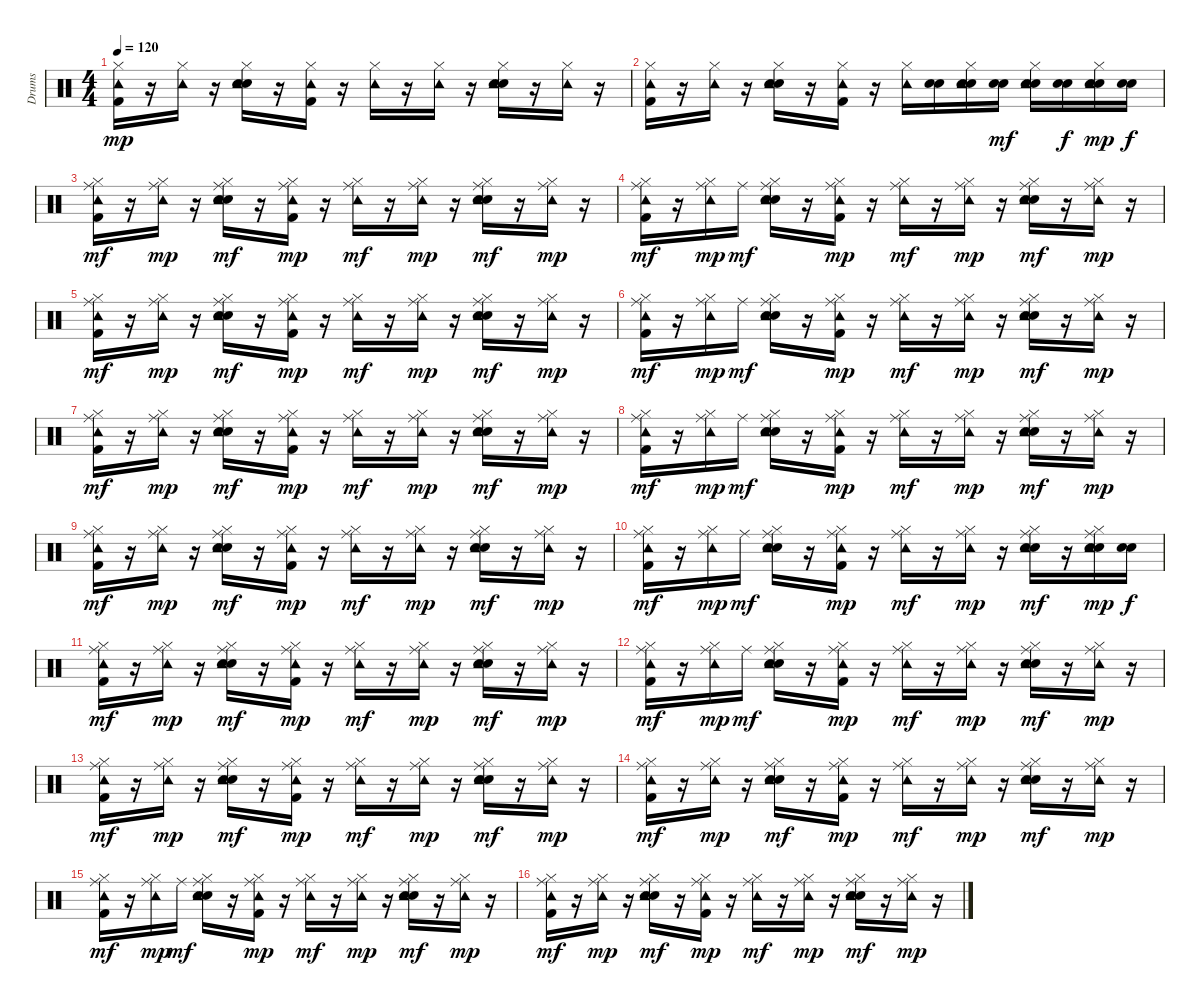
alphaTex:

\track ("Drums" "Drums") {instrument percussion}
\staff {score}
\articulation defaults
\ts (4 4)
\tempo 120
\clef neutral
\ks c
("Hi-Hat (closed)" "Tambourine (hit)" "Kick (hit) 2").16{dy mp} r.16 ("Hi-Hat (closed)" "Tambourine (hit)").16 r.16 ("Hi-Hat (closed)" "Snare (hit) 2" "Electric Snare (hit)" "Tambourine (hit)").16 r.16 ("Hi-Hat (closed)" "Tambourine (hit)" "Kick (hit) 2").16 r.16 ("Hi-Hat (closed)" "Tambourine (hit)").16 r.16 ("Hi-Hat (closed)" "Tambourine (hit)").16 r.16 ("Hi-Hat (closed)" "Snare (hit) 2" "Electric Snare (hit)" "Tambourine (hit)").16 r.16 ("Hi-Hat (closed)" "Tambourine (hit)").16 r.16 |
("Hi-Hat (closed)" "Tambourine (hit)" "Kick (hit) 2").16 r.16 ("Hi-Hat (closed)" "Tambourine (hit)").16 r.16 ("Hi-Hat (closed)" "Snare (hit) 2" "Electric Snare (hit)" "Tambourine (hit)").16 r.16 ("Hi-Hat (closed)" "Tambourine (hit)" "Kick (hit) 2").16 r.16 ("Hi-Hat (closed)" "Tambourine (hit)").16 ("Snare (hit) 2" "Electric Snare (hit)").16 ("Hi-Hat (closed)" "Snare (hit) 2" "Electric Snare (hit)" "Tambourine (hit)").16 ("Snare (hit) 2" "Electric Snare (hit)").16{dy mf} ("Hi-Hat (closed)" "Snare (hit) 2" "Electric Snare (hit)" "Tambourine (hit)").16 ("Snare (hit) 2" "Electric Snare (hit)").16{dy f} ("Hi-Hat (closed)" "Snare (hit) 2" "Electric Snare (hit)" "Tambourine (hit)").16{dy mp} ("Snare (hit) 2" "Electric Snare (hit)").16{dy f} |
("Hi-Hat (closed)" "Ride (middle)" "Tambourine (hit)" "Kick (hit) 2").16{dy mf} r.16 ("Hi-Hat (closed)" "Ride (middle)" "Tambourine (hit)").16{dy mp} r.16 ("Hi-Hat (closed)" "Ride (middle)" "Snare (hit) 2" "Electric Snare (hit)" "Tambourine (hit)").16{dy mf} r.16 ("Hi-Hat (closed)" "Ride (middle)" "Tambourine (hit)" "Kick (hit) 2").16{dy mp} r.16 ("Hi-Hat (closed)" "Ride (middle)" "Tambourine (hit)").16{dy mf} r.16 ("Hi-Hat (closed)" "Ride (middle)" "Tambourine (hit)").16{dy mp} r.16 ("Hi-Hat (closed)" "Ride (middle)" "Snare (hit) 2" "Electric Snare (hit)" "Tambourine (hit)").16{dy mf} r.16 ("Hi-Hat (closed)" "Ride (middle)" "Tambourine (hit)").16{dy mp} r.16 |
("Hi-Hat (closed)" "Ride (middle)" "Tambourine (hit)" "Kick (hit) 2").16{dy mf} r.16 ("Hi-Hat (closed)" "Ride (middle)" "Tambourine (hit)").16{dy mp} "Ride (middle)".16{dy mf} ("Hi-Hat (closed)" "Ride (middle)" "Snare (hit) 2" "Electric Snare (hit)" "Tambourine (hit)").16 r.16 ("Hi-Hat (closed)" "Ride (middle)" "Tambourine (hit)" "Kick (hit) 2").16{dy mp} r.16 ("Hi-Hat (closed)" "Ride (middle)" "Tambourine (hit)").16{dy mf} r.16 ("Hi-Hat (closed)" "Ride (middle)" "Tambourine (hit)").16{dy mp} r.16 ("Hi-Hat (closed)" "Ride (middle)" "Snare (hit) 2" "Electric Snare (hit)" "Tambourine (hit)").16{dy mf} r.16 ("Hi-Hat (closed)" "Ride (middle)" "Tambourine (hit)").16{dy mp} r.16 |
("Hi-Hat (closed)" "Ride (middle)" "Tambourine (hit)" "Kick (hit) 2").16{dy mf} r.16 ("Hi-Hat (closed)" "Ride (middle)" "Tambourine (hit)").16{dy mp} r.16 ("Hi-Hat (closed)" "Ride (middle)" "Snare (hit) 2" "Electric Snare (hit)" "Tambourine (hit)").16{dy mf} r.16 ("Hi-Hat (closed)" "Ride (middle)" "Tambourine (hit)" "Kick (hit) 2").16{dy mp} r.16 ("Hi-Hat (closed)" "Ride (middle)" "Tambourine (hit)").16{dy mf} r.16 ("Hi-Hat (closed)" "Ride (middle)" "Tambourine (hit)").16{dy mp} r.16 ("Hi-Hat (closed)" "Ride (middle)" "Snare (hit) 2" "Electric Snare (hit)" "Tambourine (hit)").16{dy mf} r.16 ("Hi-Hat (closed)" "Ride (middle)" "Tambourine (hit)").16{dy mp} r.16 |
("Hi-Hat (closed)" "Ride (middle)" "Tambourine (hit)" "Kick (hit) 2").16{dy mf} r.16 ("Hi-Hat (closed)" "Ride (middle)" "Tambourine (hit)").16{dy mp} "Ride (middle)".16{dy mf} ("Hi-Hat (closed)" "Ride (middle)" "Snare (hit) 2" "Electric Snare (hit)" "Tambourine (hit)").16 r.16 ("Hi-Hat (closed)" "Ride (middle)" "Tambourine (hit)" "Kick (hit) 2").16{dy mp} r.16 ("Hi-Hat (closed)" "Ride (middle)" "Tambourine (hit)").16{dy mf} r.16 ("Hi-Hat (closed)" "Ride (middle)" "Tambourine (hit)").16{dy mp} r.16 ("Hi-Hat (closed)" "Ride (middle)" "Snare (hit) 2" "Electric Snare (hit)" "Tambourine (hit)").16{dy mf} r.16 ("Hi-Hat (closed)" "Ride (middle)" "Tambourine (hit)").16{dy mp} r.16 |
("Hi-Hat (closed)" "Ride (middle)" "Tambourine (hit)" "Kick (hit) 2").16{dy mf} r.16 ("Hi-Hat (closed)" "Ride (middle)" "Tambourine (hit)").16{dy mp} r.16 ("Hi-Hat (closed)" "Ride (middle)" "Snare (hit) 2" "Electric Snare (hit)" "Tambourine (hit)").16{dy mf} r.16 ("Hi-Hat (closed)" "Ride (middle)" "Tambourine (hit)" "Kick (hit) 2").16{dy mp} r.16 ("Hi-Hat (closed)" "Ride (middle)" "Tambourine (hit)").16{dy mf} r.16 ("Hi-Hat (closed)" "Ride (middle)" "Tambourine (hit)").16{dy mp} r.16 ("Hi-Hat (closed)" "Ride (middle)" "Snare (hit) 2" "Electric Snare (hit)" "Tambourine (hit)").16{dy mf} r.16 ("Hi-Hat (closed)" "Ride (middle)" "Tambourine (hit)").16{dy mp} r.16 |
("Hi-Hat (closed)" "Ride (middle)" "Tambourine (hit)" "Kick (hit) 2").16{dy mf} r.16 ("Hi-Hat (closed)" "Ride (middle)" "Tambourine (hit)").16{dy mp} "Ride (middle)".16{dy mf} ("Hi-Hat (closed)" "Ride (middle)" "Snare (hit) 2" "Electric Snare (hit)" "Tambourine (hit)").16 r.16 ("Hi-Hat (closed)" "Ride (middle)" "Tambourine (hit)" "Kick (hit) 2").16{dy mp} r.16 ("Hi-Hat (closed)" "Ride (middle)" "Tambourine (hit)").16{dy mf} r.16 ("Hi-Hat (closed)" "Ride (middle)" "Tambourine (hit)").16{dy mp} r.16 ("Hi-Hat (closed)" "Ride (middle)" "Snare (hit) 2" "Electric Snare (hit)" "Tambourine (hit)").16{dy mf} r.16 ("Hi-Hat (closed)" "Ride (middle)" "Tambourine (hit)").16{dy mp} r.16 |
("Hi-Hat (closed)" "Ride (middle)" "Tambourine (hit)" "Kick (hit) 2").16{dy mf} r.16 ("Hi-Hat (closed)" "Ride (middle)" "Tambourine (hit)").16{dy mp} r.16 ("Hi-Hat (closed)" "Ride (middle)" "Snare (hit) 2" "Electric Snare (hit)" "Tambourine (hit)").16{dy mf} r.16 ("Hi-Hat (closed)" "Ride (middle)" "Tambourine (hit)" "Kick (hit) 2").16{dy mp} r.16 ("Hi-Hat (closed)" "Ride (middle)" "Tambourine (hit)").16{dy mf} r.16 ("Hi-Hat (closed)" "Ride (middle)" "Tambourine (hit)").16{dy mp} r.16 ("Hi-Hat (closed)" "Ride (middle)" "Snare (hit) 2" "Electric Snare (hit)" "Tambourine (hit)").16{dy mf} r.16 ("Hi-Hat (closed)" "Ride (middle)" "Tambourine (hit)").16{dy mp} r.16 |
("Hi-Hat (closed)" "Ride (middle)" "Tambourine (hit)" "Kick (hit) 2").16{dy mf} r.16 ("Hi-Hat (closed)" "Ride (middle)" "Tambourine (hit)").16{dy mp} "Ride (middle)".16{dy mf} ("Hi-Hat (closed)" "Ride (middle)" "Snare (hit) 2" "Electric Snare (hit)" "Tambourine (hit)").16 r.16 ("Hi-Hat (closed)" "Ride (middle)" "Tambourine (hit)" "Kick (hit) 2").16{dy mp} r.16 ("Hi-Hat (closed)" "Ride (middle)" "Tambourine (hit)").16{dy mf} r.16 ("Hi-Hat (closed)" "Ride (middle)" "Tambourine (hit)").16{dy mp} r.16 ("Hi-Hat (closed)" "Ride (middle)" "Snare (hit) 2" "Electric Snare (hit)" "Tambourine (hit)").16{dy mf} r.16 ("Hi-Hat (closed)" "Ride (middle)" "Snare (hit) 2" "Electric Snare (hit)" "Tambourine (hit)").16{dy mp} ("Snare (hit) 2" "Electric Snare (hit)").16{dy f} |
("Hi-Hat (closed)" "Ride (middle)" "Tambourine (hit)" "Kick (hit) 2").16{dy mf} r.16 ("Hi-Hat (closed)" "Ride (middle)" "Tambourine (hit)").16{dy mp} r.16 ("Hi-Hat (closed)" "Ride (middle)" "Snare (hit) 2" "Electric Snare (hit)" "Tambourine (hit)").16{dy mf} r.16 ("Hi-Hat (closed)" "Ride (middle)" "Tambourine (hit)" "Kick (hit) 2").16{dy mp} r.16 ("Hi-Hat (closed)" "Ride (middle)" "Tambourine (hit)").16{dy mf} r.16 ("Hi-Hat (closed)" "Ride (middle)" "Tambourine (hit)").16{dy mp} r.16 ("Hi-Hat (closed)" "Ride (middle)" "Snare (hit) 2" "Electric Snare (hit)" "Tambourine (hit)").16{dy mf} r.16 ("Hi-Hat (closed)" "Ride (middle)" "Tambourine (hit)").16{dy mp} r.16 |
("Hi-Hat (closed)" "Ride (middle)" "Tambourine (hit)" "Kick (hit) 2").16{dy mf} r.16 ("Hi-Hat (closed)" "Ride (middle)" "Tambourine (hit)").16{dy mp} "Ride (middle)".16{dy mf} ("Hi-Hat (closed)" "Ride (middle)" "Snare (hit) 2" "Electric Snare (hit)" "Tambourine (hit)").16 r.16 ("Hi-Hat (closed)" "Ride (middle)" "Tambourine (hit)" "Kick (hit) 2").16{dy mp} r.16 ("Hi-Hat (closed)" "Ride (middle)" "Tambourine (hit)").16{dy mf} r.16 ("Hi-Hat (closed)" "Ride (middle)" "Tambourine (hit)").16{dy mp} r.16 ("Hi-Hat (closed)" "Ride (middle)" "Snare (hit) 2" "Electric Snare (hit)" "Tambourine (hit)").16{dy mf} r.16 ("Hi-Hat (closed)" "Ride (middle)" "Tambourine (hit)").16{dy mp} r.16 |
("Hi-Hat (closed)" "Ride (middle)" "Tambourine (hit)" "Kick (hit) 2").16{dy mf} r.16 ("Hi-Hat (closed)" "Ride (middle)" "Tambourine (hit)").16{dy mp} r.16 ("Hi-Hat (closed)" "Ride (middle)" "Snare (hit) 2" "Electric Snare (hit)" "Tambourine (hit)").16{dy mf} r.16 ("Hi-Hat (closed)" "Ride (middle)" "Tambourine (hit)" "Kick (hit) 2").16{dy mp} r.16 ("Hi-Hat (closed)" "Ride (middle)" "Tambourine (hit)").16{dy mf} r.16 ("Hi-Hat (closed)" "Ride (middle)" "Tambourine (hit)").16{dy mp} r.16 ("Hi-Hat (closed)" "Ride (middle)" "Snare (hit) 2" "Electric Snare (hit)" "Tambourine (hit)").16{dy mf} r.16 ("Hi-Hat (closed)" "Ride (middle)" "Tambourine (hit)").16{dy mp} r.16 |
("Hi-Hat (closed)" "Ride (middle)" "Tambourine (hit)" "Kick (hit) 2").16{dy mf} r.16 ("Hi-Hat (closed)" "Ride (middle)" "Tambourine (hit)").16{dy mp} r.16 ("Hi-Hat (closed)" "Ride (middle)" "Snare (hit) 2" "Electric Snare (hit)" "Tambourine (hit)").16{dy mf} r.16 ("Hi-Hat (closed)" "Ride (middle)" "Tambourine (hit)" "Kick (hit) 2").16{dy mp} r.16 ("Hi-Hat (closed)" "Ride (middle)" "Tambourine (hit)").16{dy mf} r.16 ("Hi-Hat (closed)" "Ride (middle)" "Tambourine (hit)").16{dy mp} r.16 ("Hi-Hat (closed)" "Ride (middle)" "Snare (hit) 2" "Electric Snare (hit)" "Tambourine (hit)").16{dy mf} r.16 ("Hi-Hat (closed)" "Ride (middle)" "Tambourine (hit)").16{dy mp} r.16 |
("Hi-Hat (closed)" "Ride (middle)" "Tambourine (hit)" "Kick (hit) 2").16{dy mf} r.16 ("Hi-Hat (closed)" "Ride (middle)" "Tambourine (hit)").16{dy mp} "Ride (middle)".16{dy mf} ("Hi-Hat (closed)" "Ride (middle)" "Snare (hit) 2" "Electric Snare (hit)" "Tambourine (hit)").16 r.16 ("Hi-Hat (closed)" "Ride (middle)" "Tambourine (hit)" "Kick (hit) 2").16{dy mp} r.16 ("Hi-Hat (closed)" "Ride (middle)" "Tambourine (hit)").16{dy mf} r.16 ("Hi-Hat (closed)" "Ride (middle)" "Tambourine (hit)").16{dy mp} r.16 ("Hi-Hat (closed)" "Ride (middle)" "Snare (hit) 2" "Electric Snare (hit)" "Tambourine (hit)").16{dy mf} r.16 ("Hi-Hat (closed)" "Ride (middle)" "Tambourine (hit)").16{dy mp} r.16 |
("Hi-Hat (closed)" "Ride (middle)" "Tambourine (hit)" "Kick (hit) 2").16{dy mf} r.16 ("Hi-Hat (closed)" "Ride (middle)" "Tambourine (hit)").16{dy mp} r.16 ("Hi-Hat (closed)" "Ride (middle)" "Snare (hit) 2" "Electric Snare (hit)" "Tambourine (hit)").16{dy mf} r.16 ("Hi-Hat (closed)" "Ride (middle)" "Tambourine (hit)" "Kick (hit) 2").16{dy mp} r.16 ("Hi-Hat (closed)" "Ride (middle)" "Tambourine (hit)").16{dy mf} r.16 ("Hi-Hat (closed)" "Ride (middle)" "Tambourine (hit)").16{dy mp} r.16 ("Hi-Hat (closed)" "Ride (middle)" "Snare (hit) 2" "Electric Snare (hit)" "Tambourine (hit)").16{dy mf} r.16 ("Hi-Hat (closed)" "Ride (middle)" "Tambourine (hit)").16{dy mp} r.16
